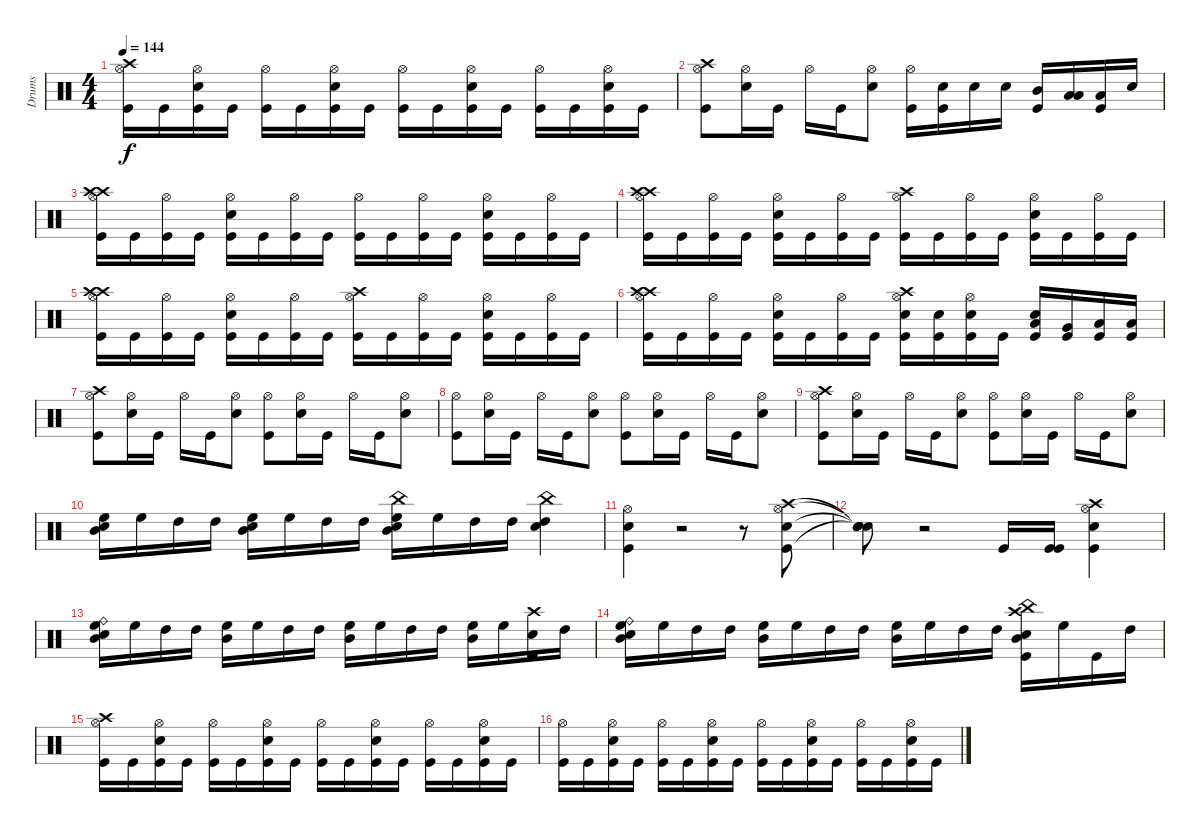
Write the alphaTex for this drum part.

\track ("Drums" "Drums") {instrument percussion}
\staff {score}
\articulation defaults
\ts (4 4)
\tempo 144
\clef neutral
\ks c
("Hi-Hat (open)" "Crash high (hit)" "Kick (hit)").16{dy f} "Kick (hit)".16 ("Kick (hit)" "Hi-Hat (open)" "Electric Snare (hit)").16 "Kick (hit)".16 ("Kick (hit)" "Hi-Hat (open)").16 "Kick (hit)".16 ("Kick (hit)" "Hi-Hat (open)" "Electric Snare (hit)").16 "Kick (hit)".16 ("Hi-Hat (open)" "Kick (hit)").16 "Kick (hit)".16 ("Kick (hit)" "Hi-Hat (open)" "Electric Snare (hit)").16 "Kick (hit)".16 ("Kick (hit)" "Hi-Hat (open)").16 "Kick (hit)".16 ("Kick (hit)" "Hi-Hat (open)" "Electric Snare (hit)").16 "Kick (hit)".16 |
("Hi-Hat (open)" "Crash high (hit)" "Kick (hit)").8 ("Hi-Hat (open)" "Electric Snare (hit)").16 "Kick (hit)".16 "Hi-Hat (open)".16 "Kick (hit)".16 ("Hi-Hat (open)" "Electric Snare (hit)").8 ("Hi-Hat (open)" "Kick (hit)").16 ("Electric Snare (hit)" "Kick (hit)").16 "Electric Snare (hit)".16 "Electric Snare (hit)".16 ("Mid Tom (hit)" "Kick (hit)").16 ("Low Floor Tom (hit)" "Low Tom (hit)").16 ("Low Floor Tom (hit)" "Kick (hit)").16 "Electric Snare (hit)".16 |
("Crash high (hit)" "Hi-Hat (open)" "Crash high (hit)" "Kick (hit)").16 "Kick (hit)".16 ("Kick (hit)" "Hi-Hat (open)").16 "Kick (hit)".16 ("Electric Snare (hit)" "Kick (hit)" "Hi-Hat (open)").16 "Kick (hit)".16 ("Kick (hit)" "Hi-Hat (open)").16 "Kick (hit)".16 ("Hi-Hat (open)" "Kick (hit)").16 "Kick (hit)".16 ("Kick (hit)" "Hi-Hat (open)").16 "Kick (hit)".16 ("Electric Snare (hit)" "Kick (hit)" "Hi-Hat (open)").16 "Kick (hit)".16 ("Kick (hit)" "Hi-Hat (open)").16 "Kick (hit)".16 |
("Crash high (hit)" "Hi-Hat (open)" "Crash high (hit)" "Kick (hit)").16 "Kick (hit)".16 ("Kick (hit)" "Hi-Hat (open)").16 "Kick (hit)".16 ("Electric Snare (hit)" "Kick (hit)" "Hi-Hat (open)").16 "Kick (hit)".16 ("Kick (hit)" "Hi-Hat (open)").16 "Kick (hit)".16 ("Crash high (hit)" "Hi-Hat (open)" "Kick (hit)").16 "Kick (hit)".16 ("Kick (hit)" "Hi-Hat (open)").16 "Kick (hit)".16 ("Electric Snare (hit)" "Kick (hit)" "Hi-Hat (open)").16 "Kick (hit)".16 ("Kick (hit)" "Hi-Hat (open)").16 "Kick (hit)".16 |
("Crash high (hit)" "Hi-Hat (open)" "Crash high (hit)" "Kick (hit)").16 "Kick (hit)".16 ("Kick (hit)" "Hi-Hat (open)").16 "Kick (hit)".16 ("Electric Snare (hit)" "Kick (hit)" "Hi-Hat (open)").16 "Kick (hit)".16 ("Kick (hit)" "Hi-Hat (open)").16 "Kick (hit)".16 ("Crash high (hit)" "Hi-Hat (open)" "Kick (hit)").16 "Kick (hit)".16 ("Kick (hit)" "Hi-Hat (open)").16 "Kick (hit)".16 ("Electric Snare (hit)" "Kick (hit)" "Hi-Hat (open)").16 "Kick (hit)".16 ("Kick (hit)" "Hi-Hat (open)").16 "Kick (hit)".16 |
("Crash high (hit)" "Hi-Hat (open)" "Crash high (hit)" "Kick (hit)").16 "Kick (hit)".16 ("Kick (hit)" "Hi-Hat (open)").16 "Kick (hit)".16 ("Electric Snare (hit)" "Kick (hit)" "Hi-Hat (open)").16 "Kick (hit)".16 ("Kick (hit)" "Hi-Hat (open)").16 "Kick (hit)".16 ("Electric Snare (hit)" "Crash high (hit)" "Hi-Hat (open)" "Kick (hit)").16 ("Electric Snare (hit)" "Kick (hit)").16 ("Electric Snare (hit)" "Kick (hit)" "Hi-Hat (open)").16 "Kick (hit)".16 ("Low Tom (hit)" "Electric Snare (hit)" "Kick (hit)").16 ("Very Low Tom (hit)" "Kick (hit)").16 ("Low Floor Tom (hit)" "Kick (hit)").16 ("Low Floor Tom (hit)" "Kick (hit)").16 |
("Hi-Hat (open)" "Crash high (hit)" "Kick (hit)").8 ("Hi-Hat (open)" "Electric Snare (hit)").16 "Kick (hit)".16 "Hi-Hat (open)".16 "Kick (hit)".16 ("Hi-Hat (open)" "Electric Snare (hit)").8 ("Hi-Hat (open)" "Kick (hit)").8 ("Hi-Hat (open)" "Electric Snare (hit)").16 "Kick (hit)".16 "Hi-Hat (open)".16 "Kick (hit)".16 ("Hi-Hat (open)" "Electric Snare (hit)").8 |
("Hi-Hat (open)" "Kick (hit)").8 ("Hi-Hat (open)" "Electric Snare (hit)").16 "Kick (hit)".16 "Hi-Hat (open)".16 "Kick (hit)".16 ("Hi-Hat (open)" "Electric Snare (hit)").8 ("Hi-Hat (open)" "Kick (hit)").8 ("Hi-Hat (open)" "Electric Snare (hit)").16 "Kick (hit)".16 "Hi-Hat (open)".16 "Kick (hit)".16 ("Hi-Hat (open)" "Electric Snare (hit)").8 |
("Hi-Hat (open)" "Crash high (hit)" "Kick (hit)").8 ("Hi-Hat (open)" "Electric Snare (hit)").16 "Kick (hit)".16 "Hi-Hat (open)".16 "Kick (hit)".16 ("Hi-Hat (open)" "Electric Snare (hit)").8 ("Hi-Hat (open)" "Kick (hit)").8 ("Hi-Hat (open)" "Electric Snare (hit)").16 "Kick (hit)".16 "Hi-Hat (open)".16 "Kick (hit)".16 ("Hi-Hat (open)" "Electric Snare (hit)").8 |
("High Floor Tom (hit)" "Mid Tom (hit)" "Electric Snare (hit)").16 "High Floor Tom (hit)".16 "High Tom (hit)".16 "High Tom (hit)".16 ("High Floor Tom (hit)" "Mid Tom (hit)" "Electric Snare (hit)").16 "High Floor Tom (hit)".16 "High Tom (hit)".16 "High Tom (hit)".16 ("China (hit)" "Electric Snare (hit)" "High Floor Tom (hit)" "Mid Tom (hit)").16 "High Floor Tom (hit)".16 "High Tom (hit)".16 "High Tom (hit)".16 ("China (hit)" "Electric Snare (hit)" "High Tom (hit)").4 |
("Hi-Hat (open)" "Electric Snare (hit)" "Kick (hit)").4 r.2 r.8 ("Crash high (hit)" "Hi-Hat (open)" "Electric Snare (hit)" "Kick (hit)").8 |
("Snare (hit)"{t} "Snare (hit)"{t} "Snare (hit)"{t} "Snare (hit)"{t}).8 r.2 "Kick (hit)".16 ("Kick (hit)" "Kick (hit)").16 ("Crash high (hit)" "Hi-Hat (open)" "Electric Snare (hit)" "Kick (hit)").4 |
("Ride (bell)" "High Floor Tom (hit)" "Mid Tom (hit)" "Electric Snare (hit)").16 "High Floor Tom (hit)".16 "High Tom (hit)".16 "High Tom (hit)".16 ("High Floor Tom (hit)" "Mid Tom (hit)").16 "High Floor Tom (hit)".16 "High Tom (hit)".16 "High Tom (hit)".16 ("High Floor Tom (hit)" "Mid Tom (hit)").16 "High Floor Tom (hit)".16 "High Tom (hit)".16 "High Tom (hit)".16 ("High Floor Tom (hit)" "Mid Tom (hit)").16 "High Floor Tom (hit)".16 ("Kick (hit)" "Electric Snare (hit)" "Crash high (hit)").16 "High Tom (hit)".16 |
("Ride (bell)" "High Floor Tom (hit)" "Mid Tom (hit)" "Electric Snare (hit)").16 "High Floor Tom (hit)".16 "High Tom (hit)".16 "High Tom (hit)".16 ("High Floor Tom (hit)" "Mid Tom (hit)").16 "High Floor Tom (hit)".16 "High Tom (hit)".16 "High Tom (hit)".16 ("High Floor Tom (hit)" "Mid Tom (hit)").16 "High Floor Tom (hit)".16 "High Tom (hit)".16 "High Tom (hit)".16 ("Crash high (hit)" "Snare (hit) 2" "Kick (hit)" "China (hit)" "Mid Tom (hit)").16 "High Floor Tom (hit)".16 "Kick (hit)".16 "High Tom (hit)".16 |
("Hi-Hat (open)" "Crash high (hit)" "Kick (hit)").16 "Kick (hit)".16 ("Kick (hit)" "Hi-Hat (open)" "Electric Snare (hit)").16 "Kick (hit)".16 ("Kick (hit)" "Hi-Hat (open)").16 "Kick (hit)".16 ("Kick (hit)" "Hi-Hat (open)" "Electric Snare (hit)").16 "Kick (hit)".16 ("Hi-Hat (open)" "Kick (hit)").16 "Kick (hit)".16 ("Kick (hit)" "Hi-Hat (open)" "Electric Snare (hit)").16 "Kick (hit)".16 ("Kick (hit)" "Hi-Hat (open)").16 "Kick (hit)".16 ("Kick (hit)" "Hi-Hat (open)" "Electric Snare (hit)").16 "Kick (hit)".16 |
("Hi-Hat (open)" "Kick (hit)").16 "Kick (hit)".16 ("Kick (hit)" "Hi-Hat (open)" "Electric Snare (hit)").16 "Kick (hit)".16 ("Kick (hit)" "Hi-Hat (open)").16 "Kick (hit)".16 ("Kick (hit)" "Hi-Hat (open)" "Electric Snare (hit)").16 "Kick (hit)".16 ("Hi-Hat (open)" "Kick (hit)").16 "Kick (hit)".16 ("Kick (hit)" "Hi-Hat (open)" "Electric Snare (hit)").16 "Kick (hit)".16 ("Kick (hit)" "Hi-Hat (open)").16 "Kick (hit)".16 ("Kick (hit)" "Hi-Hat (open)" "Electric Snare (hit)").16 "Kick (hit)".16
